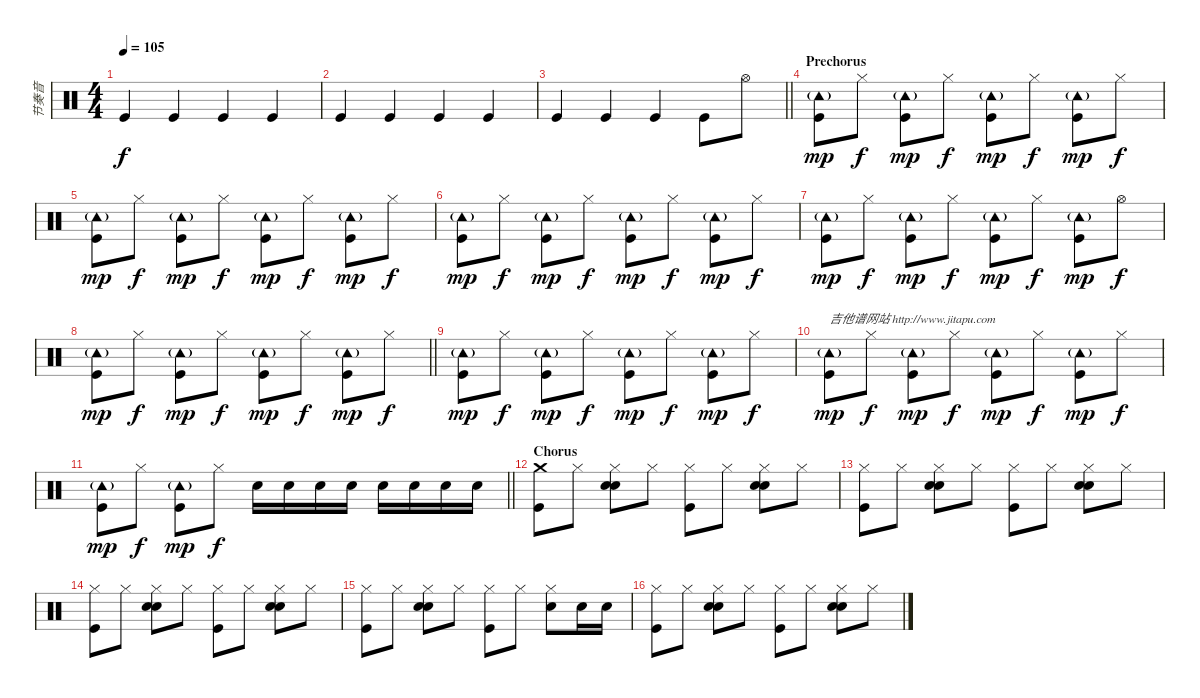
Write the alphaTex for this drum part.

\track ("节奏音" "节奏音") {instrument percussion}
\staff {score}
\articulation defaults
\ts (4 4)
\tempo 105
\clef neutral
\ks c "Kick (hit)".4{dy f} "Kick (hit)".4 "Kick (hit)".4 "Kick (hit)".4
|
"Kick (hit)".4 "Kick (hit)".4 "Kick (hit)".4 "Kick (hit)".4 |
\barLineRight lightlight "Kick (hit)".4 "Kick (hit)".4 "Kick (hit)".4 "Kick (hit)".8 "Hi-Hat (open)".8
|
\section ("" "Prechorus")
("Tambourine (hit)"{g} "Kick (hit)").8{dy mp} "Hi-Hat (closed)".8{dy f} ("Tambourine (hit)"{g} "Kick (hit)").8{dy mp} "Hi-Hat (closed)".8{dy f} ("Tambourine (hit)"{g} "Kick (hit)").8{dy mp} "Hi-Hat (closed)".8{dy f} ("Tambourine (hit)"{g} "Kick (hit)").8{dy mp} "Hi-Hat (closed)".8{dy f} |
("Tambourine (hit)"{g} "Kick (hit)").8{dy mp} "Hi-Hat (closed)".8{dy f} ("Tambourine (hit)"{g} "Kick (hit)").8{dy mp} "Hi-Hat (closed)".8{dy f} ("Tambourine (hit)"{g} "Kick (hit)").8{dy mp} "Hi-Hat (closed)".8{dy f} ("Tambourine (hit)"{g} "Kick (hit)").8{dy mp} "Hi-Hat (closed)".8{dy f} |
("Tambourine (hit)"{g} "Kick (hit)").8{dy mp} "Hi-Hat (closed)".8{dy f} ("Tambourine (hit)"{g} "Kick (hit)").8{dy mp} "Hi-Hat (closed)".8{dy f} ("Tambourine (hit)"{g} "Kick (hit)").8{dy mp} "Hi-Hat (closed)".8{dy f} ("Tambourine (hit)"{g} "Kick (hit)").8{dy mp} "Hi-Hat (closed)".8{dy f} |
("Tambourine (hit)"{g} "Kick (hit)").8{dy mp} "Hi-Hat (closed)".8{dy f} ("Tambourine (hit)"{g} "Kick (hit)").8{dy mp} "Hi-Hat (closed)".8{dy f} ("Tambourine (hit)"{g} "Kick (hit)").8{dy mp} "Hi-Hat (closed)".8{dy f} ("Tambourine (hit)"{g} "Kick (hit)").8{dy mp} "Hi-Hat (open)".8{dy f} |
\barLineRight lightlight
("Tambourine (hit)"{g} "Kick (hit)").8{dy mp} "Hi-Hat (closed)".8{dy f} ("Tambourine (hit)"{g} "Kick (hit)").8{dy mp} "Hi-Hat (closed)".8{dy f} ("Tambourine (hit)"{g} "Kick (hit)").8{dy mp} "Hi-Hat (closed)".8{dy f} ("Tambourine (hit)"{g} "Kick (hit)").8{dy mp} "Hi-Hat (closed)".8{dy f} |
("Tambourine (hit)"{g} "Kick (hit)").8{dy mp} "Hi-Hat (closed)".8{dy f} ("Tambourine (hit)"{g} "Kick (hit)").8{dy mp} "Hi-Hat (closed)".8{dy f} ("Tambourine (hit)"{g} "Kick (hit)").8{dy mp} "Hi-Hat (closed)".8{dy f} ("Tambourine (hit)"{g} "Kick (hit)").8{dy mp} "Hi-Hat (closed)".8{dy f} |
("Tambourine (hit)"{g} "Kick (hit)").8{txt "吉他谱网站 http://www.jitapu.com" dy mp} "Hi-Hat (closed)".8{dy f} ("Tambourine (hit)"{g} "Kick (hit)").8{dy mp} "Hi-Hat (closed)".8{dy f} ("Tambourine (hit)"{g} "Kick (hit)").8{dy mp} "Hi-Hat (closed)".8{dy f} ("Tambourine (hit)"{g} "Kick (hit)").8{dy mp} "Hi-Hat (closed)".8{dy f} |
\barLineRight lightlight
("Tambourine (hit)"{g} "Kick (hit)").8{dy mp} "Hi-Hat (closed)".8{dy f} ("Tambourine (hit)"{g} "Kick (hit)").8{dy mp} "Hi-Hat (closed)".8{dy f} "Snare (hit) 2".16 "Snare (hit) 2".16 "Snare (hit) 2".16 "Snare (hit) 2".16 "Snare (hit) 2".16 "Snare (hit) 2".16 "Snare (hit) 2".16 "Snare (hit) 2".16 |
\section ("" "Chorus")
("Crash medium (hit)" "Kick (hit)").8 "Hi-Hat (closed)".8 ("Hi-Hat (closed)" "Hand Clap (hit)" "Snare (hit) 2").8 "Hi-Hat (closed)".8 ("Hi-Hat (closed)" "Kick (hit)").8 "Hi-Hat (closed)".8 ("Hi-Hat (closed)" "Hand Clap (hit)" "Snare (hit) 2").8 "Hi-Hat (closed)".8 |
("Hi-Hat (closed)" "Kick (hit)").8 "Hi-Hat (closed)".8 ("Hi-Hat (closed)" "Hand Clap (hit)" "Snare (hit) 2").8 "Hi-Hat (closed)".8 ("Hi-Hat (closed)" "Kick (hit)").8 "Hi-Hat (closed)".8 ("Hi-Hat (closed)" "Hand Clap (hit)" "Snare (hit) 2").8 "Hi-Hat (closed)".8 |
("Hi-Hat (closed)" "Kick (hit)").8 "Hi-Hat (closed)".8 ("Hi-Hat (closed)" "Hand Clap (hit)" "Snare (hit) 2").8 "Hi-Hat (closed)".8 ("Hi-Hat (closed)" "Kick (hit)").8 "Hi-Hat (closed)".8 ("Hi-Hat (closed)" "Hand Clap (hit)" "Snare (hit) 2").8 "Hi-Hat (closed)".8 |
("Hi-Hat (closed)" "Kick (hit)").8 "Hi-Hat (closed)".8 ("Hi-Hat (closed)" "Hand Clap (hit)" "Snare (hit) 2").8 "Hi-Hat (closed)".8 ("Hi-Hat (closed)" "Kick (hit)").8 "Hi-Hat (closed)".8 ("Hi-Hat (closed)" "Snare (hit) 2").8 "Snare (hit) 2".16 "Snare (hit) 2".16 |
("Hi-Hat (closed)" "Kick (hit)").8 "Hi-Hat (closed)".8 ("Hi-Hat (closed)" "Hand Clap (hit)" "Snare (hit) 2").8 "Hi-Hat (closed)".8 ("Hi-Hat (closed)" "Kick (hit)").8 "Hi-Hat (closed)".8 ("Hi-Hat (closed)" "Hand Clap (hit)" "Snare (hit) 2").8 "Hi-Hat (closed)".8
